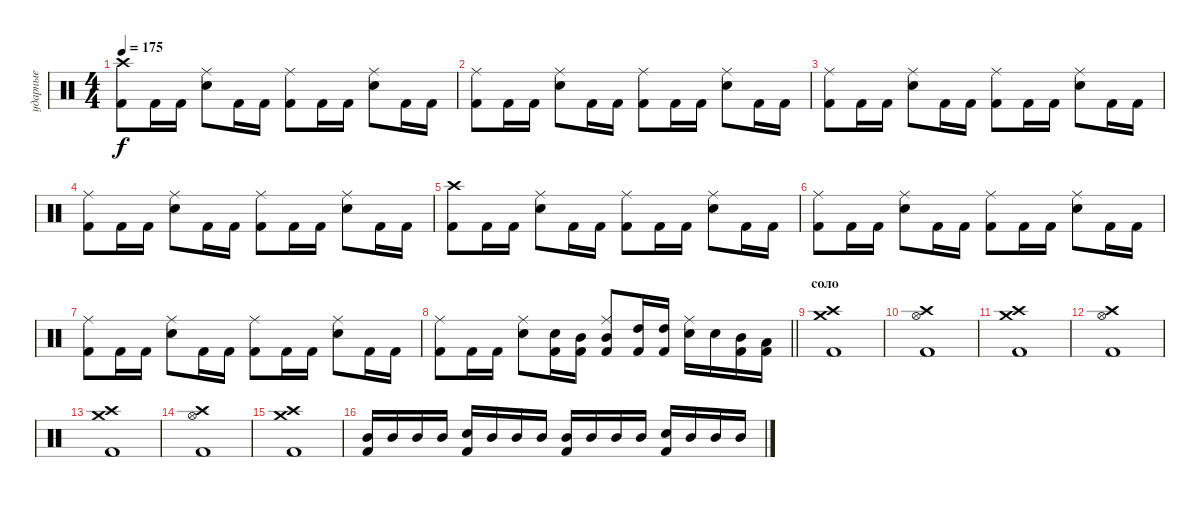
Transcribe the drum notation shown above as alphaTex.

\track ("ударные" "ударные") {instrument percussion}
\staff {score}
\articulation defaults
\ts (4 4)
\tempo 175
\clef neutral
\ks c
("Kick (hit) 2" "Crash high (hit)").8{dy f} "Kick (hit) 2".16 "Kick (hit) 2".16 ("Snare (hit) 2" "Ride (middle)").8 "Kick (hit) 2".16 "Kick (hit) 2".16 ("Kick (hit) 2" "Ride (middle)").8 "Kick (hit) 2".16 "Kick (hit) 2".16 ("Snare (hit) 2" "Ride (middle)").8 "Kick (hit) 2".16 "Kick (hit) 2".16 |
("Kick (hit) 2" "Ride (middle)").8 "Kick (hit) 2".16 "Kick (hit) 2".16 ("Snare (hit) 2" "Ride (middle)").8 "Kick (hit) 2".16 "Kick (hit) 2".16 ("Kick (hit) 2" "Ride (middle)").8 "Kick (hit) 2".16 "Kick (hit) 2".16 ("Snare (hit) 2" "Ride (middle)").8 "Kick (hit) 2".16 "Kick (hit) 2".16 |
("Kick (hit) 2" "Ride (middle)").8 "Kick (hit) 2".16 "Kick (hit) 2".16 ("Snare (hit) 2" "Ride (middle)").8 "Kick (hit) 2".16 "Kick (hit) 2".16 ("Kick (hit) 2" "Ride (middle)").8 "Kick (hit) 2".16 "Kick (hit) 2".16 ("Snare (hit) 2" "Ride (middle)").8 "Kick (hit) 2".16 "Kick (hit) 2".16 |
("Kick (hit) 2" "Ride (middle)").8 "Kick (hit) 2".16 "Kick (hit) 2".16 ("Snare (hit) 2" "Ride (middle)").8 "Kick (hit) 2".16 "Kick (hit) 2".16 ("Kick (hit) 2" "Ride (middle)").8 "Kick (hit) 2".16 "Kick (hit) 2".16 ("Snare (hit) 2" "Ride (middle)").8 "Kick (hit) 2".16 "Kick (hit) 2".16 |
("Kick (hit) 2" "Crash high (hit)").8 "Kick (hit) 2".16 "Kick (hit) 2".16 ("Snare (hit) 2" "Ride (middle)").8 "Kick (hit) 2".16 "Kick (hit) 2".16 ("Kick (hit) 2" "Ride (middle)").8 "Kick (hit) 2".16 "Kick (hit) 2".16 ("Snare (hit) 2" "Ride (middle)").8 "Kick (hit) 2".16 "Kick (hit) 2".16 |
("Kick (hit) 2" "Ride (middle)").8 "Kick (hit) 2".16 "Kick (hit) 2".16 ("Snare (hit) 2" "Ride (middle)").8 "Kick (hit) 2".16 "Kick (hit) 2".16 ("Kick (hit) 2" "Ride (middle)").8 "Kick (hit) 2".16 "Kick (hit) 2".16 ("Snare (hit) 2" "Ride (middle)").8 "Kick (hit) 2".16 "Kick (hit) 2".16 |
("Kick (hit) 2" "Ride (middle)").8 "Kick (hit) 2".16 "Kick (hit) 2".16 ("Snare (hit) 2" "Ride (middle)").8 "Kick (hit) 2".16 "Kick (hit) 2".16 ("Kick (hit) 2" "Ride (middle)").8 "Kick (hit) 2".16 "Kick (hit) 2".16 ("Snare (hit) 2" "Ride (middle)").8 "Kick (hit) 2".16 "Kick (hit) 2".16 |
\barLineRight lightlight
("Kick (hit) 2" "Ride (middle)").8 "Kick (hit) 2".16 "Kick (hit) 2".16 ("Snare (hit) 2" "Ride (middle)").8 ("Kick (hit) 2" "Snare (hit) 2").16 ("Kick (hit) 2" "Mid Tom (hit)").16 ("Kick (hit) 2" "Mid Tom (hit)" "Ride (middle)").8 ("Kick (hit) 2" "High Tom (hit)").16 ("Kick (hit) 2" "High Tom (hit)").16 ("Snare (hit) 2" "Ride (middle)").16 "Snare (hit) 2".16 ("Kick (hit) 2" "Mid Tom (hit)").16 ("Kick (hit) 2" "Low Tom (hit)").16 |
\section ("" "соло")
("Kick (hit) 2" "Crash high (hit)" "Crash medium (hit)").1 |
("Kick (hit) 2" "Hi-Hat (open)" "Crash high (hit)").1 |
("Kick (hit) 2" "Crash high (hit)" "Crash medium (hit)").1 |
("Kick (hit) 2" "Hi-Hat (open)" "Crash high (hit)").1 |
("Kick (hit) 2" "Crash high (hit)" "Crash medium (hit)").1 |
("Kick (hit) 2" "Hi-Hat (open)" "Crash high (hit)").1 |
("Kick (hit) 2" "Crash high (hit)" "Crash medium (hit)").1 |
("Kick (hit) 2" "Mid Tom (hit)").16 "Mid Tom (hit)".16 "Mid Tom (hit)".16 "Mid Tom (hit)".16 ("Kick (hit) 2" "Snare (hit) 2").16 "Mid Tom (hit)".16 "Mid Tom (hit)".16 "Mid Tom (hit)".16 ("Kick (hit) 2" "Mid Tom (hit)").16 "Mid Tom (hit)".16 "Mid Tom (hit)".16 "Mid Tom (hit)".16 ("Kick (hit) 2" "Snare (hit) 2").16 "Mid Tom (hit)".16 "Mid Tom (hit)".16 "Mid Tom (hit)".16
